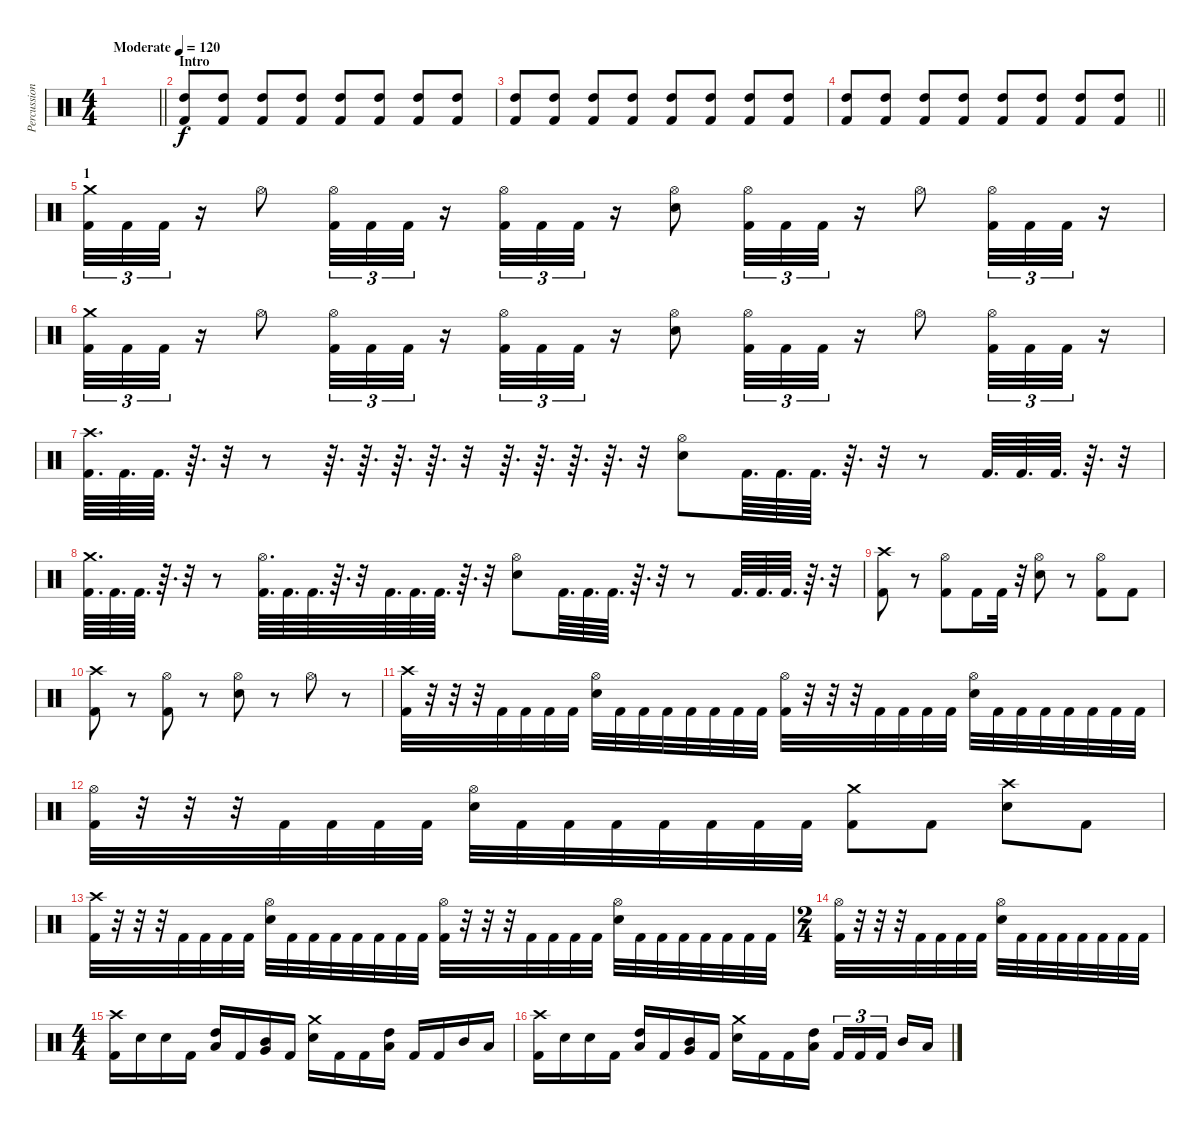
\track ("Percussion" "Percussion") {instrument percussion}
\staff {score}
\articulation defaults
\ts (4 4)
\tempo (120 "Moderate")
\tempo 70
\tempo (120 "Moderate")
\clef neutral
\barLineRight lightlight
\ks c
|
\section ("" "Intro")
("Kick (hit) 2" "High Tom (hit)").8 ("Kick (hit) 2" "High Tom (hit)").8 ("Kick (hit) 2" "High Tom (hit)").8 ("Kick (hit) 2" "High Tom (hit)").8 ("Kick (hit) 2" "High Tom (hit)").8 ("Kick (hit) 2" "High Tom (hit)").8 ("Kick (hit) 2" "High Tom (hit)").8 ("Kick (hit) 2" "High Tom (hit)").8 |
("Kick (hit) 2" "High Tom (hit)").8 ("Kick (hit) 2" "High Tom (hit)").8 ("Kick (hit) 2" "High Tom (hit)").8 ("Kick (hit) 2" "High Tom (hit)").8 ("Kick (hit) 2" "High Tom (hit)").8 ("Kick (hit) 2" "High Tom (hit)").8 ("Kick (hit) 2" "High Tom (hit)").8 ("Kick (hit) 2" "High Tom (hit)").8 |
\barLineRight lightlight
("Kick (hit) 2" "High Tom (hit)").8 ("Kick (hit) 2" "High Tom (hit)").8 ("Kick (hit) 2" "High Tom (hit)").8 ("Kick (hit) 2" "High Tom (hit)").8 ("Kick (hit) 2" "High Tom (hit)").8 ("Kick (hit) 2" "High Tom (hit)").8 ("Kick (hit) 2" "High Tom (hit)").8 ("Kick (hit) 2" "High Tom (hit)").8 |
\section ("" "1")
("Kick (hit) 2" "Crash medium (hit)").32{tu (3 2)} "Kick (hit) 2".32{tu (3 2)} "Kick (hit) 2".32{tu (3 2)} r.16 "Hi-Hat (open)".8 ("Kick (hit) 2" "Hi-Hat (open)").32{tu (3 2)} "Kick (hit) 2".32{tu (3 2)} "Kick (hit) 2".32{tu (3 2)} r.16 ("Kick (hit) 2" "Hi-Hat (open)").32{tu (3 2)} "Kick (hit) 2".32{tu (3 2)} "Kick (hit) 2".32{tu (3 2)} r.16 ("Electric Snare (hit)" "Hi-Hat (open)").8 ("Kick (hit) 2" "Hi-Hat (open)").32{tu (3 2)} "Kick (hit) 2".32{tu (3 2)} "Kick (hit) 2".32{tu (3 2)} r.16 "Hi-Hat (open)".8 ("Kick (hit) 2" "Hi-Hat (open)").32{tu (3 2)} "Kick (hit) 2".32{tu (3 2)} "Kick (hit) 2".32{tu (3 2)} r.16 |
("Kick (hit) 2" "Crash medium (hit)").32{tu (3 2)} "Kick (hit) 2".32{tu (3 2)} "Kick (hit) 2".32{tu (3 2)} r.16 "Hi-Hat (open)".8 ("Kick (hit) 2" "Hi-Hat (open)").32{tu (3 2)} "Kick (hit) 2".32{tu (3 2)} "Kick (hit) 2".32{tu (3 2)} r.16 ("Kick (hit) 2" "Hi-Hat (open)").32{tu (3 2)} "Kick (hit) 2".32{tu (3 2)} "Kick (hit) 2".32{tu (3 2)} r.16 ("Electric Snare (hit)" "Hi-Hat (open)").8 ("Kick (hit) 2" "Hi-Hat (open)").32{tu (3 2)} "Kick (hit) 2".32{tu (3 2)} "Kick (hit) 2".32{tu (3 2)} r.16 "Hi-Hat (open)".8 ("Kick (hit) 2" "Hi-Hat (open)").32{tu (3 2)} "Kick (hit) 2".32{tu (3 2)} "Kick (hit) 2".32{tu (3 2)} r.16 |
("Kick (hit) 2" "Crash high (hit)").64{d} "Kick (hit) 2".64{d} "Kick (hit) 2".64{d} r.64{d} r.32 r.8 r.64{d} r.64{d} r.64{d} r.64{d} r.32 r.64{d} r.64{d} r.64{d} r.64{d} r.32 ("Electric Snare (hit)" "Hi-Hat (open)").8 "Kick (hit) 2".64{d} "Kick (hit) 2".64{d} "Kick (hit) 2".64{d} r.64{d} r.32 r.8 "Kick (hit) 2".64{d} "Kick (hit) 2".64{d} "Kick (hit) 2".64{d} r.64{d} r.32 |
("Kick (hit) 2" "Crash medium (hit)").64{d} "Kick (hit) 2".64{d} "Kick (hit) 2".64{d} r.64{d} r.32 r.8 ("Kick (hit) 2" "Hi-Hat (open)").64{d} "Kick (hit) 2".64{d} "Kick (hit) 2".64{d} r.64{d} r.32 "Kick (hit) 2".64{d} "Kick (hit) 2".64{d} "Kick (hit) 2".64{d} r.64{d} r.32 ("Electric Snare (hit)" "Hi-Hat (open)").8 "Kick (hit) 2".64{d} "Kick (hit) 2".64{d} "Kick (hit) 2".64{d} r.64{d} r.32 r.8 "Kick (hit) 2".64{d} "Kick (hit) 2".64{d} "Kick (hit) 2".64{d} r.64{d} r.32 |
("Kick (hit) 2" "Crash high (hit)").8 r.8 ("Kick (hit) 2" "Hi-Hat (open)").8 "Kick (hit) 2".16 "Kick (hit) 2".32 r.32 ("Electric Snare (hit)" "Hi-Hat (open)").8 r.8 ("Kick (hit) 2" "Hi-Hat (open)").8 "Kick (hit) 2".8 |
("Kick (hit) 2" "Crash high (hit)").8 r.8 ("Kick (hit) 2" "Hi-Hat (open)").8 r.8 ("Electric Snare (hit)" "Hi-Hat (open)").8 r.8 "Hi-Hat (open)".8 r.8 |
("Kick (hit) 2" "Crash high (hit)").32 r.32 r.32 r.32 "Kick (hit) 2".32 "Kick (hit) 2".32 "Kick (hit) 2".32 "Kick (hit) 2".32 ("Electric Snare (hit)" "Hi-Hat (open)").32 "Kick (hit) 2".32 "Kick (hit) 2".32 "Kick (hit) 2".32 "Kick (hit) 2".32 "Kick (hit) 2".32 "Kick (hit) 2".32 "Kick (hit) 2".32 ("Kick (hit) 2" "Hi-Hat (open)").32 r.32 r.32 r.32 "Kick (hit) 2".32 "Kick (hit) 2".32 "Kick (hit) 2".32 "Kick (hit) 2".32 ("Electric Snare (hit)" "Hi-Hat (open)").32 "Kick (hit) 2".32 "Kick (hit) 2".32 "Kick (hit) 2".32 "Kick (hit) 2".32 "Kick (hit) 2".32 "Kick (hit) 2".32 "Kick (hit) 2".32 |
("Kick (hit) 2" "Hi-Hat (open)").32 r.32 r.32 r.32 "Kick (hit) 2".32 "Kick (hit) 2".32 "Kick (hit) 2".32 "Kick (hit) 2".32 ("Electric Snare (hit)" "Hi-Hat (open)").32 "Kick (hit) 2".32 "Kick (hit) 2".32 "Kick (hit) 2".32 "Kick (hit) 2".32 "Kick (hit) 2".32 "Kick (hit) 2".32 "Kick (hit) 2".32 ("Kick (hit) 2" "Crash medium (hit)").8 "Kick (hit) 2".8 ("Electric Snare (hit)" "Crash high (hit)").8 "Kick (hit) 2".8 |
("Kick (hit) 2" "Crash high (hit)").32 r.32 r.32 r.32 "Kick (hit) 2".32 "Kick (hit) 2".32 "Kick (hit) 2".32 "Kick (hit) 2".32 ("Electric Snare (hit)" "Hi-Hat (open)").32 "Kick (hit) 2".32 "Kick (hit) 2".32 "Kick (hit) 2".32 "Kick (hit) 2".32 "Kick (hit) 2".32 "Kick (hit) 2".32 "Kick (hit) 2".32 ("Kick (hit) 2" "Hi-Hat (open)").32 r.32 r.32 r.32 "Kick (hit) 2".32 "Kick (hit) 2".32 "Kick (hit) 2".32 "Kick (hit) 2".32 ("Electric Snare (hit)" "Hi-Hat (open)").32 "Kick (hit) 2".32 "Kick (hit) 2".32 "Kick (hit) 2".32 "Kick (hit) 2".32 "Kick (hit) 2".32 "Kick (hit) 2".32 "Kick (hit) 2".32 |
\ts (2 4)
("Kick (hit) 2" "Hi-Hat (open)").32 r.32 r.32 r.32 "Kick (hit) 2".32 "Kick (hit) 2".32 "Kick (hit) 2".32 "Kick (hit) 2".32 ("Electric Snare (hit)" "Hi-Hat (open)").32 "Kick (hit) 2".32 "Kick (hit) 2".32 "Kick (hit) 2".32 "Kick (hit) 2".32 "Kick (hit) 2".32 "Kick (hit) 2".32 "Kick (hit) 2".32 |
\ts (4 4)
("Kick (hit) 2" "Crash high (hit)").16 "Electric Snare (hit)".16 "Electric Snare (hit)".16 "Kick (hit) 2".16 ("Low Tom (hit)" "High Tom (hit)").16 "Kick (hit) 2".16 ("Very Low Tom (hit)" "Mid Tom (hit)").16 "Kick (hit) 2".16 ("Electric Snare (hit)" "Crash medium (hit)").16 "Kick (hit) 2".16 "Kick (hit) 2".16 ("High Tom (hit)" "Low Tom (hit)").16 "Kick (hit) 2".16 "Kick (hit) 2".16 "Mid Tom (hit)".16 "Low Tom (hit)".16 |
("Kick (hit) 2" "Crash high (hit)").16 "Electric Snare (hit)".16 "Electric Snare (hit)".16 "Kick (hit) 2".16 ("Low Tom (hit)" "High Tom (hit)").16 "Kick (hit) 2".16 ("Very Low Tom (hit)" "Mid Tom (hit)").16 "Kick (hit) 2".16 ("Electric Snare (hit)" "Crash medium (hit)").16 "Kick (hit) 2".16 "Kick (hit) 2".16 ("High Tom (hit)" "Low Tom (hit)").16 "Kick (hit) 2".16{tu (3 2)} "Kick (hit) 2".16{tu (3 2)} "Kick (hit) 2".16{tu (3 2) beam splitsecondary} "Mid Tom (hit)".16 "Low Tom (hit)".16
